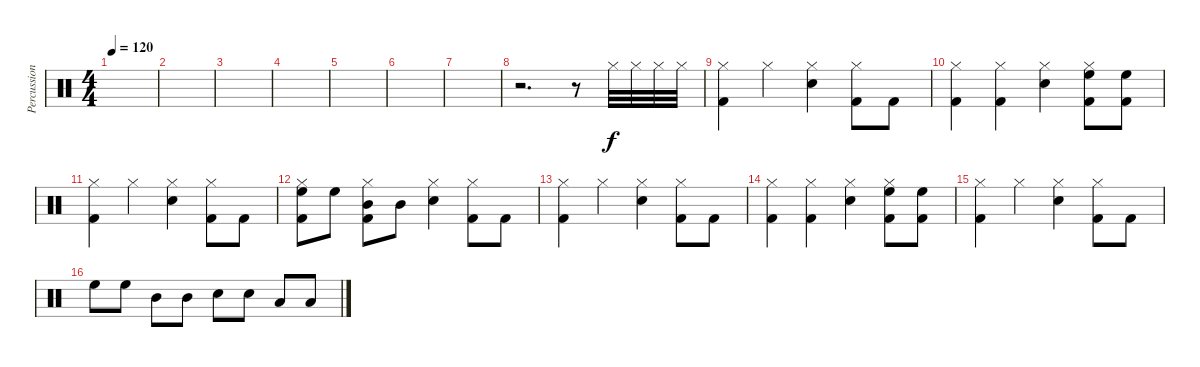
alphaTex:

\track ("Percussion" "Percussion") {instrument percussion}
\staff {score}
\articulation defaults
\ts (4 4)
\tempo 120
\clef neutral
\ks c
|
|
|
|
|
|
|
r.2{d} r.8 "Hi-Hat (closed)".32 "Hi-Hat (closed)".32 "Hi-Hat (closed)".32 "Hi-Hat (closed)".32 |
("Hi-Hat (closed)" "Kick (hit) 2").4 "Hi-Hat (closed)".4 ("Hi-Hat (closed)" "Snare (hit) 2").4 ("Hi-Hat (closed)" "Kick (hit) 2").8 "Kick (hit) 2".8 |
("Hi-Hat (closed)" "Kick (hit) 2").4 ("Hi-Hat (closed)" "Kick (hit) 2").4 ("Hi-Hat (closed)" "Snare (hit) 2").4 ("Hi-Hat (closed)" "High Floor Tom (hit)" "Kick (hit) 2").8 ("High Floor Tom (hit)" "Kick (hit) 2").8 |
("Hi-Hat (closed)" "Kick (hit) 2").4 "Hi-Hat (closed)".4 ("Hi-Hat (closed)" "Snare (hit) 2").4 ("Hi-Hat (closed)" "Kick (hit) 2").8 "Kick (hit) 2".8 |
("Hi-Hat (closed)" "High Floor Tom (hit)" "Kick (hit) 2").8 "High Floor Tom (hit)".8 ("Hi-Hat (closed)" "Mid Tom (hit)" "Kick (hit) 2").8 "Mid Tom (hit)".8 ("Hi-Hat (closed)" "Snare (hit) 2").4 ("Hi-Hat (closed)" "Kick (hit) 2").8 "Kick (hit) 2".8 |
("Hi-Hat (closed)" "Kick (hit) 2").4 "Hi-Hat (closed)".4 ("Hi-Hat (closed)" "Snare (hit) 2").4 ("Hi-Hat (closed)" "Kick (hit) 2").8 "Kick (hit) 2".8 |
("Hi-Hat (closed)" "Kick (hit) 2").4 ("Hi-Hat (closed)" "Kick (hit) 2").4 ("Hi-Hat (closed)" "Snare (hit) 2").4 ("Hi-Hat (closed)" "High Floor Tom (hit)" "Kick (hit) 2").8 ("High Floor Tom (hit)" "Kick (hit) 2").8 |
("Hi-Hat (closed)" "Kick (hit) 2").4 "Hi-Hat (closed)".4 ("Hi-Hat (closed)" "Snare (hit) 2").4 ("Hi-Hat (closed)" "Kick (hit) 2").8 "Kick (hit) 2".8 |
"High Floor Tom (hit)".8 "High Floor Tom (hit)".8 "Mid Tom (hit)".8 "Mid Tom (hit)".8 "Snare (hit) 2".8 "Snare (hit) 2".8 "Low Tom (hit)".8 "Low Tom (hit)".8
